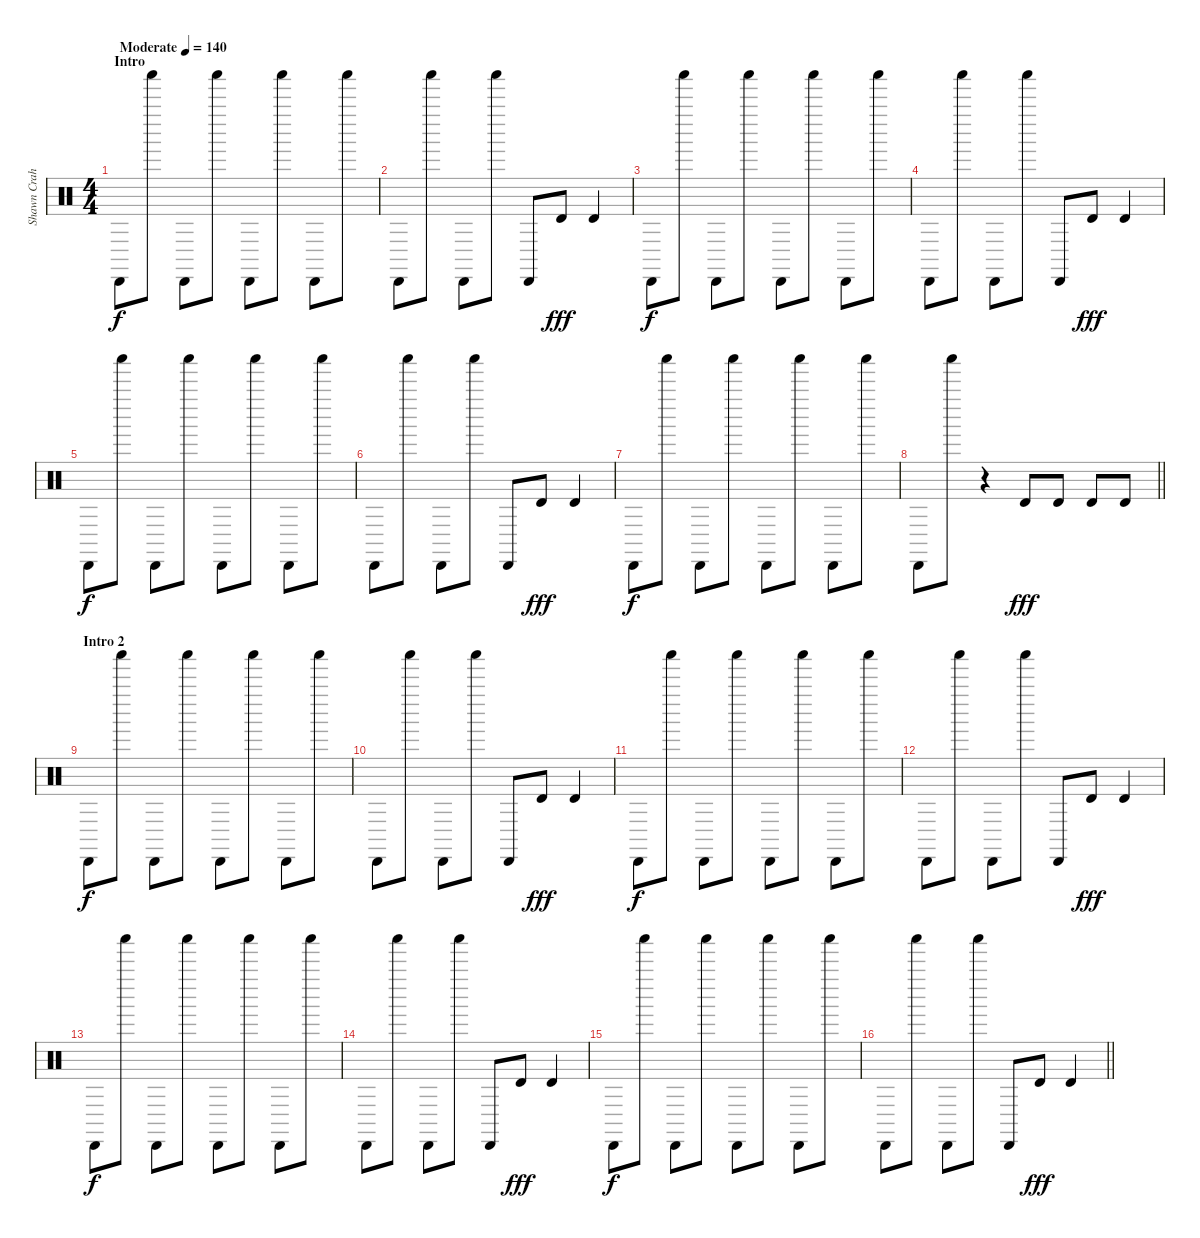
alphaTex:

\track ("Shawn Crahan" "Shawn Crah") {instrument percussion}
\staff {score}
\articulation defaults
\ts (4 4)
\section ("" "Intro")
\tempo (140 "Moderate")
\clef neutral
\ks c "Cabasa (hit)".8{dy f} "Shaker (hit)".8 "Cabasa (hit)".8 "Shaker (hit)".8 "Cabasa (hit)".8 "Shaker (hit)".8 "Cabasa (hit)".8 "Shaker (hit)".8
|
"Cabasa (hit)".8 "Shaker (hit)".8 "Cabasa (hit)".8 "Shaker (hit)".8 "Cabasa (hit)".8 "Timbale high (hit)".8{dy fff} "Timbale high (hit)".4 |
"Cabasa (hit)".8{dy f} "Shaker (hit)".8 "Cabasa (hit)".8 "Shaker (hit)".8 "Cabasa (hit)".8 "Shaker (hit)".8 "Cabasa (hit)".8 "Shaker (hit)".8 |
"Cabasa (hit)".8 "Shaker (hit)".8 "Cabasa (hit)".8 "Shaker (hit)".8 "Cabasa (hit)".8 "Timbale high (hit)".8{dy fff} "Timbale high (hit)".4 |
"Cabasa (hit)".8{dy f} "Shaker (hit)".8 "Cabasa (hit)".8 "Shaker (hit)".8 "Cabasa (hit)".8 "Shaker (hit)".8 "Cabasa (hit)".8 "Shaker (hit)".8 |
"Cabasa (hit)".8 "Shaker (hit)".8 "Cabasa (hit)".8 "Shaker (hit)".8 "Cabasa (hit)".8 "Timbale high (hit)".8{dy fff} "Timbale high (hit)".4 |
"Cabasa (hit)".8{dy f} "Shaker (hit)".8 "Cabasa (hit)".8 "Shaker (hit)".8 "Cabasa (hit)".8 "Shaker (hit)".8 "Cabasa (hit)".8 "Shaker (hit)".8 |
\barLineRight lightlight "Cabasa (hit)".8 "Shaker (hit)".8
r.4 "Timbale high (hit)".8{dy fff} "Timbale high (hit)".8 "Timbale high (hit)".8 "Timbale high (hit)".8 |
\section ("" "Intro 2")
"Cabasa (hit)".8{dy f} "Shaker (hit)".8 "Cabasa (hit)".8 "Shaker (hit)".8 "Cabasa (hit)".8 "Shaker (hit)".8 "Cabasa (hit)".8 "Shaker (hit)".8 |
"Cabasa (hit)".8 "Shaker (hit)".8 "Cabasa (hit)".8 "Shaker (hit)".8 "Cabasa (hit)".8 "Timbale high (hit)".8{dy fff} "Timbale high (hit)".4 |
"Cabasa (hit)".8{dy f} "Shaker (hit)".8 "Cabasa (hit)".8 "Shaker (hit)".8 "Cabasa (hit)".8 "Shaker (hit)".8 "Cabasa (hit)".8 "Shaker (hit)".8 |
"Cabasa (hit)".8 "Shaker (hit)".8 "Cabasa (hit)".8 "Shaker (hit)".8 "Cabasa (hit)".8 "Timbale high (hit)".8{dy fff} "Timbale high (hit)".4 |
"Cabasa (hit)".8{dy f} "Shaker (hit)".8 "Cabasa (hit)".8 "Shaker (hit)".8 "Cabasa (hit)".8 "Shaker (hit)".8 "Cabasa (hit)".8 "Shaker (hit)".8 |
"Cabasa (hit)".8 "Shaker (hit)".8 "Cabasa (hit)".8 "Shaker (hit)".8 "Cabasa (hit)".8 "Timbale high (hit)".8{dy fff} "Timbale high (hit)".4 |
"Cabasa (hit)".8{dy f} "Shaker (hit)".8 "Cabasa (hit)".8 "Shaker (hit)".8 "Cabasa (hit)".8 "Shaker (hit)".8 "Cabasa (hit)".8 "Shaker (hit)".8 |
\barLineRight lightlight "Cabasa (hit)".8 "Shaker (hit)".8 "Cabasa (hit)".8 "Shaker (hit)".8 "Cabasa (hit)".8 "Timbale high (hit)".8{dy fff} "Timbale high (hit)".4
